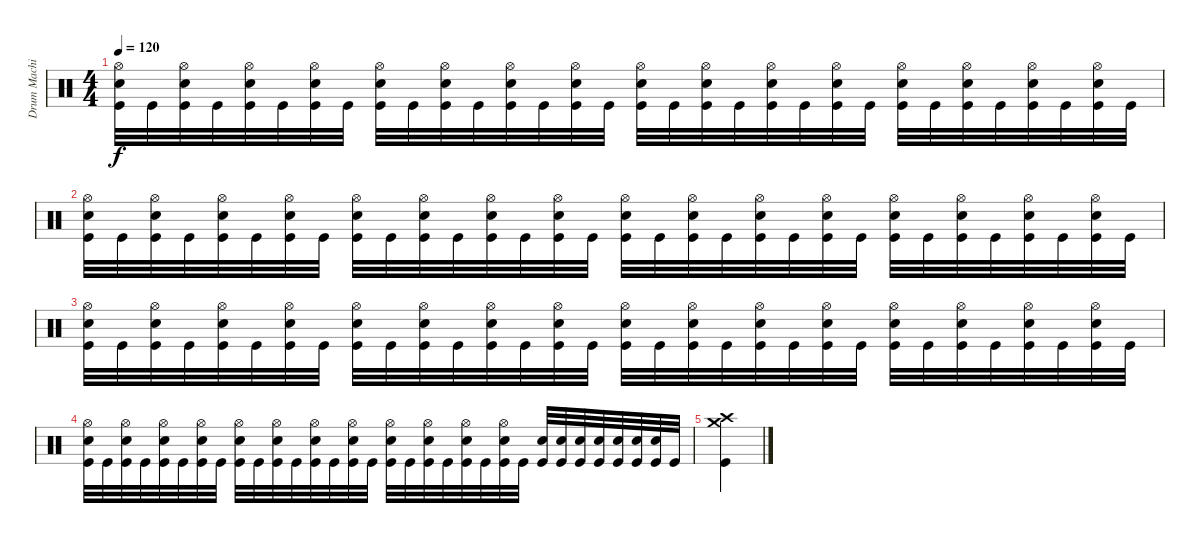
\track ("Drum Machine" "Drum Machi") {instrument percussion}
\staff {score}
\articulation defaults
\ts (4 4)
\tempo 120
\clef neutral
\ks c
("Hi-Hat (open)" "Electric Snare (hit)" "Kick (hit)").32{dy f} "Kick (hit)".32 ("Hi-Hat (open)" "Electric Snare (hit)" "Kick (hit)").32 "Kick (hit)".32 ("Hi-Hat (open)" "Electric Snare (hit)" "Kick (hit)").32 "Kick (hit)".32 ("Hi-Hat (open)" "Electric Snare (hit)" "Kick (hit)").32 "Kick (hit)".32 ("Hi-Hat (open)" "Electric Snare (hit)" "Kick (hit)").32 "Kick (hit)".32 ("Hi-Hat (open)" "Electric Snare (hit)" "Kick (hit)").32 "Kick (hit)".32 ("Hi-Hat (open)" "Electric Snare (hit)" "Kick (hit)").32 "Kick (hit)".32 ("Hi-Hat (open)" "Electric Snare (hit)" "Kick (hit)").32 "Kick (hit)".32 ("Hi-Hat (open)" "Electric Snare (hit)" "Kick (hit)").32 "Kick (hit)".32 ("Hi-Hat (open)" "Electric Snare (hit)" "Kick (hit)").32 "Kick (hit)".32 ("Hi-Hat (open)" "Electric Snare (hit)" "Kick (hit)").32 "Kick (hit)".32 ("Hi-Hat (open)" "Electric Snare (hit)" "Kick (hit)").32 "Kick (hit)".32 ("Hi-Hat (open)" "Electric Snare (hit)" "Kick (hit)").32 "Kick (hit)".32 ("Hi-Hat (open)" "Electric Snare (hit)" "Kick (hit)").32 "Kick (hit)".32 ("Hi-Hat (open)" "Electric Snare (hit)" "Kick (hit)").32 "Kick (hit)".32 ("Hi-Hat (open)" "Electric Snare (hit)" "Kick (hit)").32 "Kick (hit)".32 |
("Hi-Hat (open)" "Electric Snare (hit)" "Kick (hit)").32 "Kick (hit)".32 ("Hi-Hat (open)" "Electric Snare (hit)" "Kick (hit)").32 "Kick (hit)".32 ("Hi-Hat (open)" "Electric Snare (hit)" "Kick (hit)").32 "Kick (hit)".32 ("Hi-Hat (open)" "Electric Snare (hit)" "Kick (hit)").32 "Kick (hit)".32 ("Hi-Hat (open)" "Electric Snare (hit)" "Kick (hit)").32 "Kick (hit)".32 ("Hi-Hat (open)" "Electric Snare (hit)" "Kick (hit)").32 "Kick (hit)".32 ("Hi-Hat (open)" "Electric Snare (hit)" "Kick (hit)").32 "Kick (hit)".32 ("Hi-Hat (open)" "Electric Snare (hit)" "Kick (hit)").32 "Kick (hit)".32 ("Hi-Hat (open)" "Electric Snare (hit)" "Kick (hit)").32 "Kick (hit)".32 ("Hi-Hat (open)" "Electric Snare (hit)" "Kick (hit)").32 "Kick (hit)".32 ("Hi-Hat (open)" "Electric Snare (hit)" "Kick (hit)").32 "Kick (hit)".32 ("Hi-Hat (open)" "Electric Snare (hit)" "Kick (hit)").32 "Kick (hit)".32 ("Hi-Hat (open)" "Electric Snare (hit)" "Kick (hit)").32 "Kick (hit)".32 ("Hi-Hat (open)" "Electric Snare (hit)" "Kick (hit)").32 "Kick (hit)".32 ("Hi-Hat (open)" "Electric Snare (hit)" "Kick (hit)").32 "Kick (hit)".32 ("Hi-Hat (open)" "Electric Snare (hit)" "Kick (hit)").32 "Kick (hit)".32 |
("Hi-Hat (open)" "Electric Snare (hit)" "Kick (hit)").32 "Kick (hit)".32 ("Hi-Hat (open)" "Electric Snare (hit)" "Kick (hit)").32 "Kick (hit)".32 ("Hi-Hat (open)" "Electric Snare (hit)" "Kick (hit)").32 "Kick (hit)".32 ("Hi-Hat (open)" "Electric Snare (hit)" "Kick (hit)").32 "Kick (hit)".32 ("Hi-Hat (open)" "Electric Snare (hit)" "Kick (hit)").32 "Kick (hit)".32 ("Hi-Hat (open)" "Electric Snare (hit)" "Kick (hit)").32 "Kick (hit)".32 ("Hi-Hat (open)" "Electric Snare (hit)" "Kick (hit)").32 "Kick (hit)".32 ("Hi-Hat (open)" "Electric Snare (hit)" "Kick (hit)").32 "Kick (hit)".32 ("Hi-Hat (open)" "Electric Snare (hit)" "Kick (hit)").32 "Kick (hit)".32 ("Hi-Hat (open)" "Electric Snare (hit)" "Kick (hit)").32 "Kick (hit)".32 ("Hi-Hat (open)" "Electric Snare (hit)" "Kick (hit)").32 "Kick (hit)".32 ("Hi-Hat (open)" "Electric Snare (hit)" "Kick (hit)").32 "Kick (hit)".32 ("Hi-Hat (open)" "Electric Snare (hit)" "Kick (hit)").32 "Kick (hit)".32 ("Hi-Hat (open)" "Electric Snare (hit)" "Kick (hit)").32 "Kick (hit)".32 ("Hi-Hat (open)" "Electric Snare (hit)" "Kick (hit)").32 "Kick (hit)".32 ("Hi-Hat (open)" "Electric Snare (hit)" "Kick (hit)").32 "Kick (hit)".32 |
("Hi-Hat (open)" "Electric Snare (hit)" "Kick (hit)").32 "Kick (hit)".32 ("Hi-Hat (open)" "Electric Snare (hit)" "Kick (hit)").32 "Kick (hit)".32 ("Hi-Hat (open)" "Electric Snare (hit)" "Kick (hit)").32 "Kick (hit)".32 ("Hi-Hat (open)" "Electric Snare (hit)" "Kick (hit)").32 "Kick (hit)".32 ("Hi-Hat (open)" "Electric Snare (hit)" "Kick (hit)").32 "Kick (hit)".32 ("Hi-Hat (open)" "Electric Snare (hit)" "Kick (hit)").32 "Kick (hit)".32 ("Hi-Hat (open)" "Electric Snare (hit)" "Kick (hit)").32 "Kick (hit)".32 ("Hi-Hat (open)" "Electric Snare (hit)" "Kick (hit)").32 "Kick (hit)".32 ("Hi-Hat (open)" "Electric Snare (hit)" "Kick (hit)").32 "Kick (hit)".32 ("Hi-Hat (open)" "Electric Snare (hit)" "Kick (hit)").32 "Kick (hit)".32 ("Hi-Hat (open)" "Electric Snare (hit)" "Kick (hit)").32 "Kick (hit)".32 ("Hi-Hat (open)" "Electric Snare (hit)" "Kick (hit)").32 "Kick (hit)".32 ("Electric Snare (hit)" "Kick (hit)").32 ("Electric Snare (hit)" "Kick (hit)").32 ("Electric Snare (hit)" "Kick (hit)").32 ("Electric Snare (hit)" "Kick (hit)").32 ("Electric Snare (hit)" "Kick (hit)").32 ("Electric Snare (hit)" "Kick (hit)").32 ("Electric Snare (hit)" "Kick (hit)").32 "Kick (hit)".32 |
("Crash medium (hit)" "Crash high (hit)" "Kick (hit)").4
